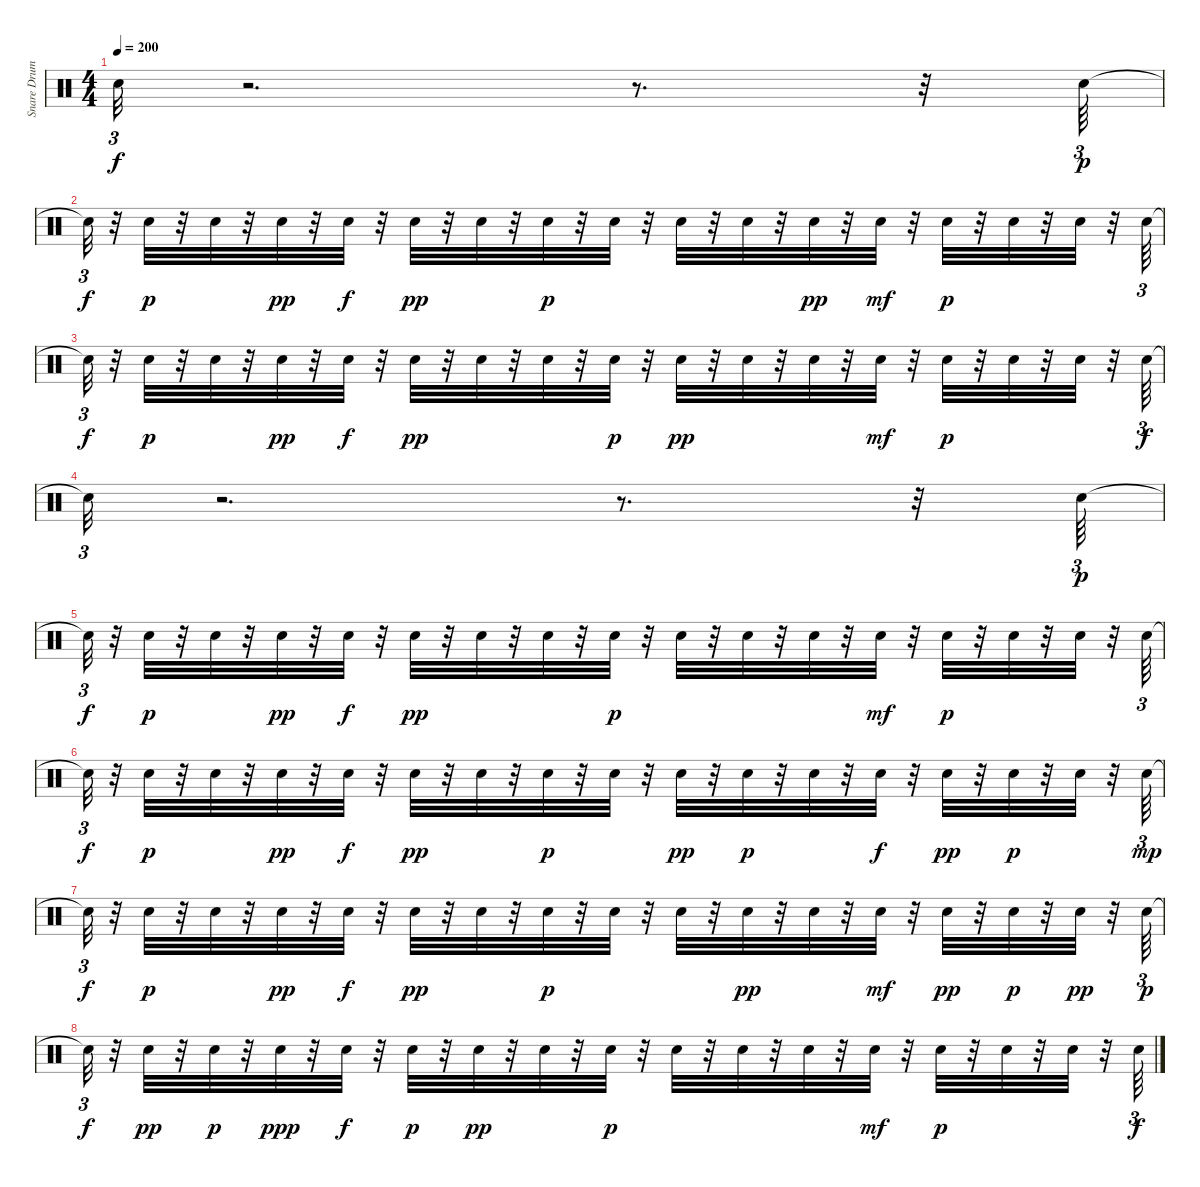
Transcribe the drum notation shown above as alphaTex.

\track ("Snare Drums" "Snare Drum") {instrument percussion}
\staff {score}
\articulation defaults
\ts (4 4)
\tempo 200
\clef neutral
\ks c "Snare (hit)"{t}.32{tu (3 2) dy f}
r.2{d} r.8{d} r.32 "Hand Clap (hit)".64{tu (3 2) dy p} |
"Snare (hit)"{t}.32{tu (3 2) dy f} r.32 "Hand Clap (hit)".32{dy p} r.32 "Hand Clap (hit)".32 r.32 "Hand Clap (hit)".32{dy pp} r.32 "Hand Clap (hit)".32{dy f} r.32 "Hand Clap (hit)".32{dy pp} r.32 "Hand Clap (hit)".32 r.32 "Hand Clap (hit)".32{dy p} r.32 "Hand Clap (hit)".32 r.32 "Hand Clap (hit)".32 r.32 "Hand Clap (hit)".32 r.32 "Hand Clap (hit)".32{dy pp} r.32 "Hand Clap (hit)".32{dy mf} r.32 "Hand Clap (hit)".32{dy p} r.32 "Hand Clap (hit)".32 r.32 "Hand Clap (hit)".32 r.32 "Hand Clap (hit)".64{tu (3 2)} |
"Snare (hit)"{t}.32{tu (3 2) dy f} r.32 "Hand Clap (hit)".32{dy p} r.32 "Hand Clap (hit)".32 r.32 "Hand Clap (hit)".32{dy pp} r.32 "Hand Clap (hit)".32{dy f} r.32 "Hand Clap (hit)".32{dy pp} r.32 "Hand Clap (hit)".32 r.32 "Hand Clap (hit)".32 r.32 "Hand Clap (hit)".32{dy p} r.32 "Hand Clap (hit)".32{dy pp} r.32 "Hand Clap (hit)".32 r.32 "Hand Clap (hit)".32 r.32 "Hand Clap (hit)".32{dy mf} r.32 "Hand Clap (hit)".32{dy p} r.32 "Hand Clap (hit)".32 r.32 "Hand Clap (hit)".32 r.32 "Hand Clap (hit)".64{tu (3 2) dy f} |
"Snare (hit)"{t}.32{tu (3 2)} r.2{d} r.8{d} r.32 "Hand Clap (hit)".64{tu (3 2) dy p} |
"Snare (hit)"{t}.32{tu (3 2) dy f} r.32 "Hand Clap (hit)".32{dy p} r.32 "Hand Clap (hit)".32 r.32 "Hand Clap (hit)".32{dy pp} r.32 "Hand Clap (hit)".32{dy f} r.32 "Hand Clap (hit)".32{dy pp} r.32 "Hand Clap (hit)".32 r.32 "Hand Clap (hit)".32 r.32 "Hand Clap (hit)".32{dy p} r.32 "Hand Clap (hit)".32 r.32 "Hand Clap (hit)".32 r.32 "Hand Clap (hit)".32 r.32 "Hand Clap (hit)".32{dy mf} r.32 "Hand Clap (hit)".32{dy p} r.32 "Hand Clap (hit)".32 r.32 "Hand Clap (hit)".32 r.32 "Hand Clap (hit)".64{tu (3 2)} |
"Snare (hit)"{t}.32{tu (3 2) dy f} r.32 "Hand Clap (hit)".32{dy p} r.32 "Hand Clap (hit)".32 r.32 "Hand Clap (hit)".32{dy pp} r.32 "Hand Clap (hit)".32{dy f} r.32 "Hand Clap (hit)".32{dy pp} r.32 "Hand Clap (hit)".32 r.32 "Hand Clap (hit)".32{dy p} r.32 "Hand Clap (hit)".32 r.32 "Hand Clap (hit)".32{dy pp} r.32 "Hand Clap (hit)".32{dy p} r.32 "Hand Clap (hit)".32 r.32 "Hand Clap (hit)".32{dy f} r.32 "Hand Clap (hit)".32{dy pp} r.32 "Hand Clap (hit)".32{dy p} r.32 "Hand Clap (hit)".32 r.32 "Hand Clap (hit)".64{tu (3 2) dy mp} |
"Snare (hit)"{t}.32{tu (3 2) dy f} r.32 "Hand Clap (hit)".32{dy p} r.32 "Hand Clap (hit)".32 r.32 "Hand Clap (hit)".32{dy pp} r.32 "Hand Clap (hit)".32{dy f} r.32 "Hand Clap (hit)".32{dy pp} r.32 "Hand Clap (hit)".32 r.32 "Hand Clap (hit)".32{dy p} r.32 "Hand Clap (hit)".32 r.32 "Hand Clap (hit)".32 r.32 "Hand Clap (hit)".32{dy pp} r.32 "Hand Clap (hit)".32 r.32 "Hand Clap (hit)".32{dy mf} r.32 "Hand Clap (hit)".32{dy pp} r.32 "Hand Clap (hit)".32{dy p} r.32 "Hand Clap (hit)".32{dy pp} r.32 "Hand Clap (hit)".64{tu (3 2) dy p} |
"Snare (hit)"{t}.32{tu (3 2) dy f} r.32 "Hand Clap (hit)".32{dy pp} r.32 "Hand Clap (hit)".32{dy p} r.32 "Hand Clap (hit)".32{dy ppp} r.32 "Hand Clap (hit)".32{dy f} r.32 "Hand Clap (hit)".32{dy p} r.32 "Hand Clap (hit)".32{dy pp} r.32 "Hand Clap (hit)".32 r.32 "Hand Clap (hit)".32{dy p} r.32 "Hand Clap (hit)".32 r.32 "Hand Clap (hit)".32 r.32 "Hand Clap (hit)".32 r.32 "Hand Clap (hit)".32{dy mf} r.32 "Hand Clap (hit)".32{dy p} r.32 "Hand Clap (hit)".32 r.32 "Hand Clap (hit)".32 r.32 "Hand Clap (hit)".64{tu (3 2) dy f}
